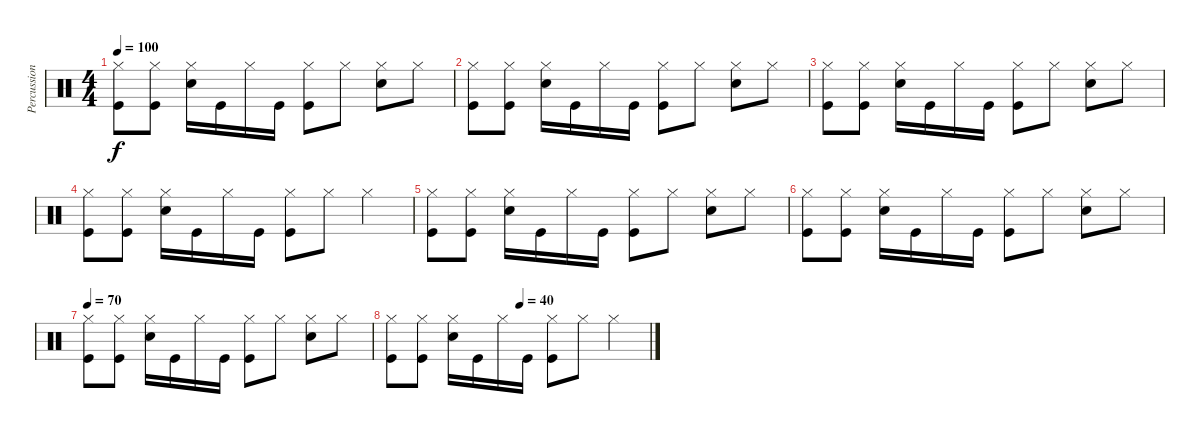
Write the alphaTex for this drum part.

\track ("Percussion" "Percussion") {instrument percussion}
\staff {score}
\articulation defaults
\ts (4 4)
\tempo 100
\clef neutral
\ks c
("Kick (hit)" "Hi-Hat (closed)").8{dy f} ("Kick (hit)" "Hi-Hat (closed)").8 ("Electric Snare (hit)" "Hi-Hat (closed)").16 "Kick (hit)".16 "Hi-Hat (closed)".16 "Kick (hit)".16 ("Kick (hit)" "Hi-Hat (closed)").8 "Hi-Hat (closed)".8 ("Electric Snare (hit)" "Hi-Hat (closed)").8 "Hi-Hat (closed)".8 |
("Kick (hit)" "Hi-Hat (closed)").8 ("Kick (hit)" "Hi-Hat (closed)").8 ("Electric Snare (hit)" "Hi-Hat (closed)").16 "Kick (hit)".16 "Hi-Hat (closed)".16 "Kick (hit)".16 ("Kick (hit)" "Hi-Hat (closed)").8 "Hi-Hat (closed)".8 ("Electric Snare (hit)" "Hi-Hat (closed)").8 "Hi-Hat (closed)".8 |
("Kick (hit)" "Hi-Hat (closed)").8 ("Kick (hit)" "Hi-Hat (closed)").8 ("Electric Snare (hit)" "Hi-Hat (closed)").16 "Kick (hit)".16 "Hi-Hat (closed)".16 "Kick (hit)".16 ("Kick (hit)" "Hi-Hat (closed)").8 "Hi-Hat (closed)".8 ("Electric Snare (hit)" "Hi-Hat (closed)").8 "Hi-Hat (closed)".8 |
("Kick (hit)" "Hi-Hat (closed)").8 ("Kick (hit)" "Hi-Hat (closed)").8 ("Electric Snare (hit)" "Hi-Hat (closed)").16 "Kick (hit)".16 "Hi-Hat (closed)".16 "Kick (hit)".16 ("Kick (hit)" "Hi-Hat (closed)").8 "Hi-Hat (closed)".8 "Hi-Hat (closed)".4 |
("Kick (hit)" "Hi-Hat (closed)").8 ("Kick (hit)" "Hi-Hat (closed)").8 ("Electric Snare (hit)" "Hi-Hat (closed)").16 "Kick (hit)".16 "Hi-Hat (closed)".16 "Kick (hit)".16 ("Kick (hit)" "Hi-Hat (closed)").8 "Hi-Hat (closed)".8 ("Electric Snare (hit)" "Hi-Hat (closed)").8 "Hi-Hat (closed)".8 |
("Kick (hit)" "Hi-Hat (closed)").8 ("Kick (hit)" "Hi-Hat (closed)").8 ("Electric Snare (hit)" "Hi-Hat (closed)").16 "Kick (hit)".16 "Hi-Hat (closed)".16 "Kick (hit)".16 ("Kick (hit)" "Hi-Hat (closed)").8{volume 0} "Hi-Hat (closed)".8 ("Electric Snare (hit)" "Hi-Hat (closed)").8 "Hi-Hat (closed)".8 |
\tempo 70
("Kick (hit)" "Hi-Hat (closed)").8 ("Kick (hit)" "Hi-Hat (closed)").8 ("Electric Snare (hit)" "Hi-Hat (closed)").16 "Kick (hit)".16 "Hi-Hat (closed)".16 "Kick (hit)".16 ("Kick (hit)" "Hi-Hat (closed)").8 "Hi-Hat (closed)".8 ("Electric Snare (hit)" "Hi-Hat (closed)").8 "Hi-Hat (closed)".8 |
\tempo (40 0.5)
("Kick (hit)" "Hi-Hat (closed)").8 ("Kick (hit)" "Hi-Hat (closed)").8 ("Electric Snare (hit)" "Hi-Hat (closed)").16 "Kick (hit)".16 "Hi-Hat (closed)".16 "Kick (hit)".16 ("Kick (hit)" "Hi-Hat (closed)").8 "Hi-Hat (closed)".8 "Hi-Hat (closed)".4
